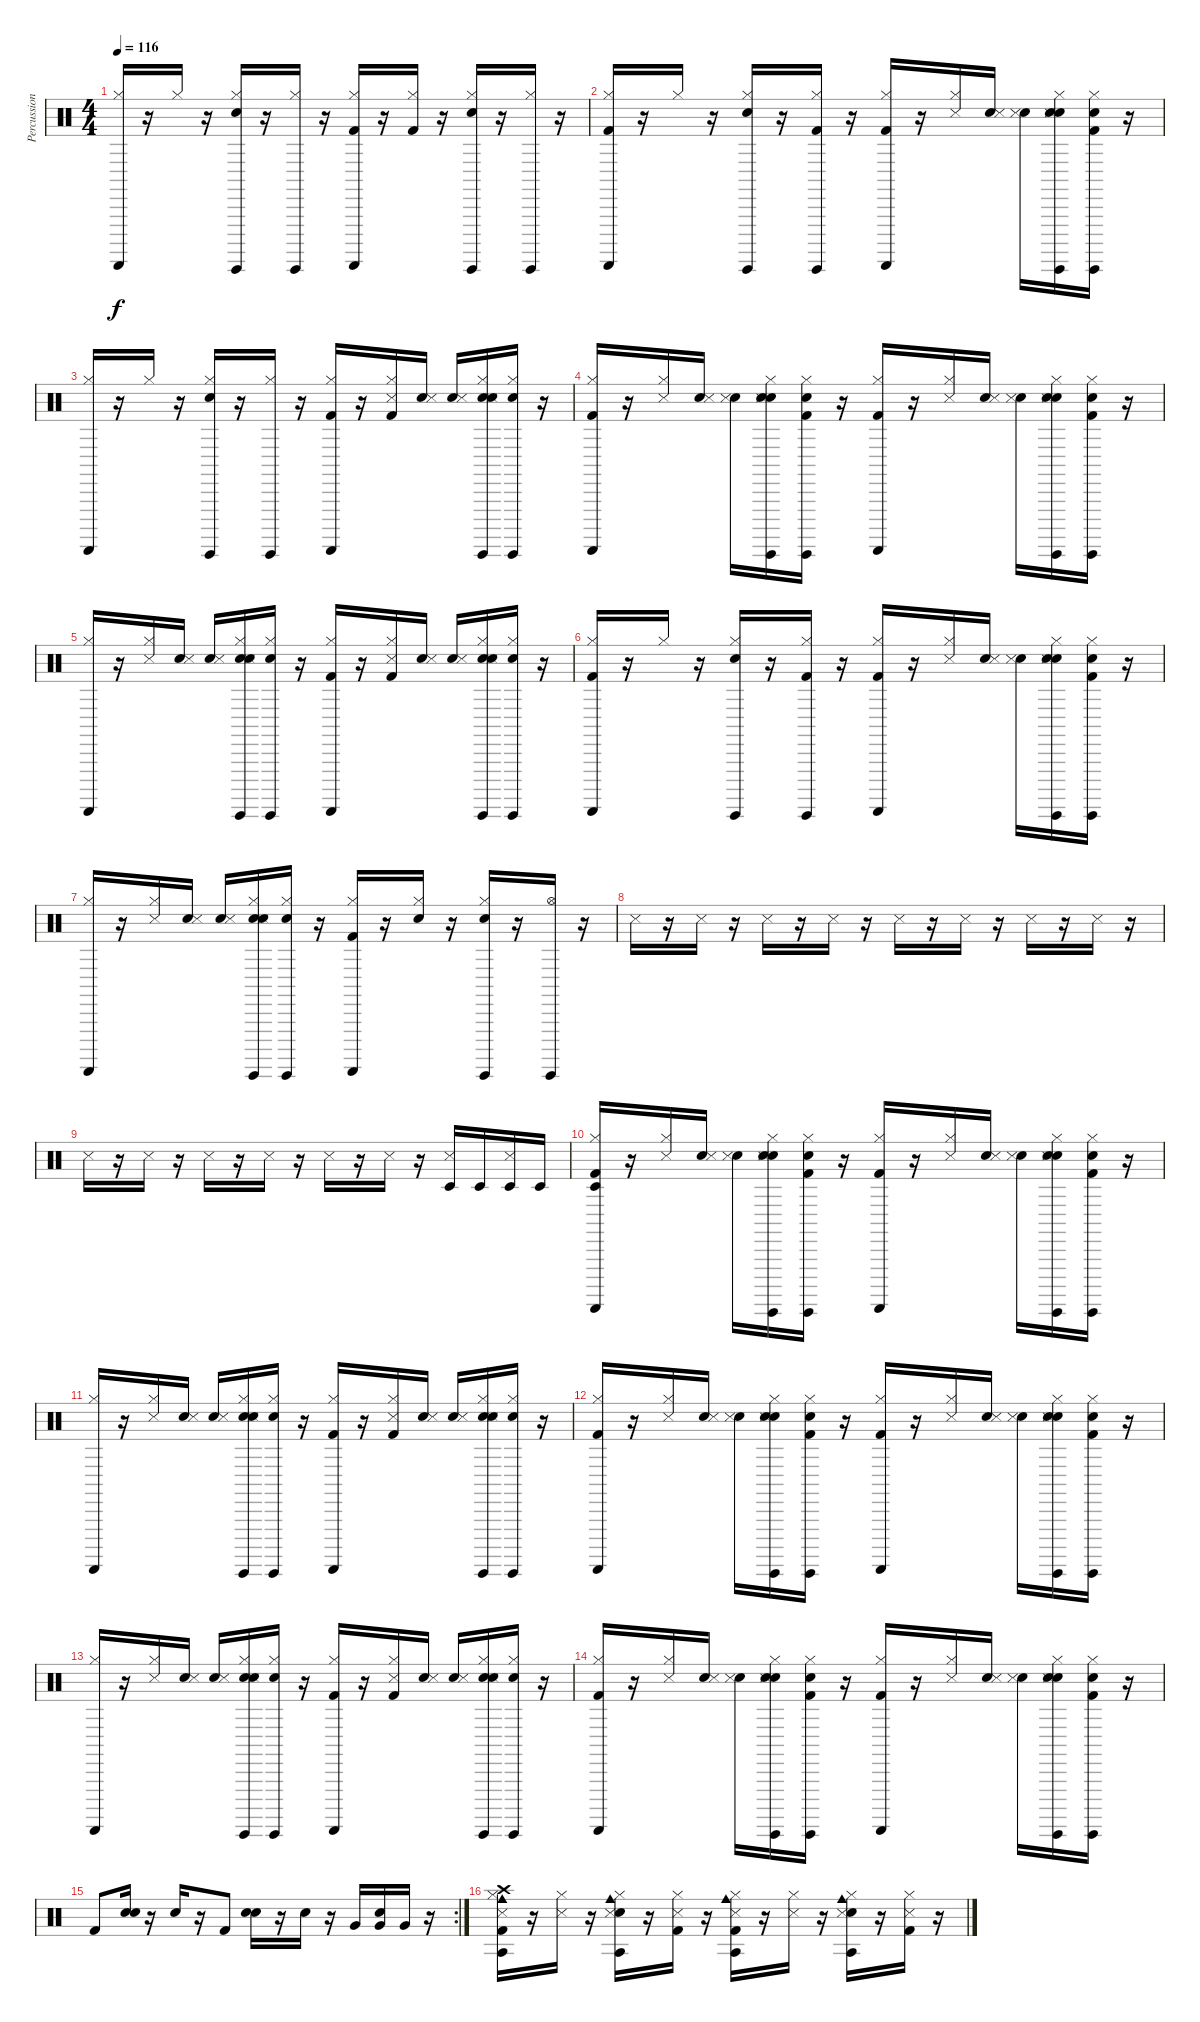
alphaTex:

\track ("Percussion" "Percussion") {instrument percussion}
\staff {score}
\articulation defaults
\ts (4 4)
\tempo 116
\clef neutral
\ks c
("Guiro (scrap-return)" "Hi-Hat (closed)").16{dy f} r.16 "Hi-Hat (closed)".16 r.16 ("Snare (hit) 2" "Guiro (hit)" "Hi-Hat (closed)").16 r.16 ("Guiro (hit)" "Hi-Hat (closed)").16 r.16 ("Guiro (scrap-return)" "Hi-Hat (closed)" "Kick (hit) 2").16 r.16 ("Hi-Hat (closed)" "Kick (hit) 2").16 r.16 ("Guiro (hit)" "Hi-Hat (closed)" "Snare (hit) 2").16 r.16 ("Guiro (hit)" "Hi-Hat (closed)").16 r.16 |
("Guiro (scrap-return)" "Hi-Hat (closed)" "Kick (hit) 2").16 r.16 "Hi-Hat (closed)".16 r.16 ("Guiro (hit)" "Hi-Hat (closed)" "Snare (hit) 2").16 r.16 ("Guiro (hit)" "Hi-Hat (closed)" "Kick (hit) 2").16 r.16 ("Guiro (scrap-return)" "Hi-Hat (closed)" "Kick (hit) 2").16 r.16 ("Hi-Hat (closed)" "Snare (side stick) 3").16 ("Snare (hit)" "Snare (side stick) 3").16 ("Snare (hit)" "Snare (side stick) 3").16 ("Snare (hit)" "Guiro (hit)" "Snare (side stick) 3" "Hi-Hat (closed)" "Snare (hit) 2").16 ("Snare (hit)" "Guiro (hit)" "Hi-Hat (closed)" "Kick (hit) 2").16 r.16 |
("Guiro (scrap-return)" "Hi-Hat (closed)").16 r.16 "Hi-Hat (closed)".16 r.16 ("Guiro (hit)" "Hi-Hat (closed)" "Snare (hit) 2").16 r.16 ("Guiro (hit)" "Hi-Hat (closed)").16 r.16 ("Guiro (scrap-return)" "Hi-Hat (closed)" "Kick (hit) 2").16 r.16 ("Hi-Hat (closed)" "Kick (hit) 2" "Snare (side stick) 3").16 ("Snare (hit)" "Snare (side stick) 3").16 ("Snare (hit)" "Snare (side stick) 3").16 ("Snare (hit)" "Snare (hit) 2" "Guiro (hit)" "Hi-Hat (closed)" "Snare (side stick) 3").16 ("Snare (hit)" "Guiro (hit)" "Hi-Hat (closed)").16 r.16 |
("Guiro (scrap-return)" "Hi-Hat (closed)" "Kick (hit) 2").16 r.16 ("Hi-Hat (closed)" "Snare (side stick) 3").16 ("Snare (hit)" "Snare (side stick) 3").16 ("Snare (hit)" "Snare (side stick) 3").16 ("Snare (hit)" "Guiro (hit)" "Snare (side stick) 3" "Hi-Hat (closed)" "Snare (hit) 2").16 ("Snare (hit)" "Guiro (hit)" "Hi-Hat (closed)" "Kick (hit) 2").16 r.16 ("Guiro (scrap-return)" "Hi-Hat (closed)" "Kick (hit) 2").16 r.16 ("Snare (side stick) 3" "Hi-Hat (closed)").16 ("Snare (hit)" "Snare (side stick) 3").16 ("Snare (hit)" "Snare (side stick) 3").16 ("Snare (hit)" "Snare (side stick) 3" "Guiro (hit)" "Hi-Hat (closed)" "Snare (hit) 2").16 ("Snare (hit)" "Guiro (hit)" "Hi-Hat (closed)" "Kick (hit) 2").16 r.16 |
("Guiro (scrap-return)" "Hi-Hat (closed)").16 r.16 ("Snare (side stick) 3" "Hi-Hat (closed)").16 ("Snare (hit)" "Snare (side stick) 3").16 ("Snare (hit)" "Snare (side stick) 3").16 ("Snare (hit)" "Guiro (hit)" "Hi-Hat (closed)" "Snare (side stick) 3" "Snare (hit) 2").16 ("Snare (hit)" "Guiro (hit)" "Hi-Hat (closed)").16 r.16 ("Kick (hit) 2" "Guiro (scrap-return)" "Hi-Hat (closed)").16 r.16 ("Snare (side stick) 3" "Hi-Hat (closed)" "Kick (hit) 2").16 ("Snare (hit)" "Snare (side stick) 3").16 ("Snare (hit)" "Snare (side stick) 3").16 ("Snare (hit)" "Guiro (hit)" "Hi-Hat (closed)" "Snare (side stick) 3" "Snare (hit) 2").16 ("Snare (hit)" "Guiro (hit)" "Hi-Hat (closed)").16 r.16 |
("Guiro (scrap-return)" "Hi-Hat (closed)" "Kick (hit) 2").16 r.16 "Hi-Hat (closed)".16 r.16 ("Guiro (hit)" "Hi-Hat (closed)" "Snare (hit) 2").16 r.16 ("Guiro (hit)" "Hi-Hat (closed)" "Kick (hit) 2").16 r.16 ("Guiro (scrap-return)" "Hi-Hat (closed)" "Kick (hit) 2").16 r.16 ("Hi-Hat (closed)" "Snare (side stick) 3").16 ("Snare (hit)" "Snare (side stick) 3").16 ("Snare (hit)" "Snare (side stick) 3").16 ("Snare (hit)" "Guiro (hit)" "Hi-Hat (closed)" "Snare (side stick) 3" "Snare (hit) 2").16 ("Snare (hit)" "Kick (hit) 2" "Guiro (hit)" "Hi-Hat (closed)").16 r.16 |
("Guiro (scrap-return)" "Hi-Hat (closed)").16 r.16 ("Hi-Hat (closed)" "Snare (side stick) 3").16 ("Snare (hit)" "Snare (side stick) 3").16 ("Snare (hit)" "Snare (side stick) 3").16 ("Snare (hit)" "Guiro (hit)" "Hi-Hat (closed)" "Snare (hit) 2" "Snare (side stick) 3").16 ("Snare (hit)" "Guiro (hit)" "Hi-Hat (closed)").16 r.16 ("Hi-Hat (closed)" "Kick (hit) 2" "Guiro (scrap-return)").16 r.16 ("Electric Snare (hit)" "Hi-Hat (closed)").16 r.16 ("Hi-Hat (closed)" "Electric Snare (hit)" "Guiro (hit)").16 r.16 ("Hi-Hat (open)" "Guiro (hit)").16 r.16 |
"Snare (side stick) 3".16 r.16 "Snare (side stick) 3".16 r.16 "Snare (side stick) 3".16 r.16 "Snare (side stick) 3".16 r.16 "Snare (side stick) 3".16 r.16 "Snare (side stick) 3".16 r.16 "Snare (side stick) 3".16 r.16 "Snare (side stick) 3".16 r.16 |
"Snare (side stick) 3".16 r.16 "Snare (side stick) 3".16 r.16 "Snare (side stick) 3".16 r.16 "Snare (side stick) 3".16 r.16 "Snare (side stick) 3".16 r.16 "Snare (side stick) 3".16 r.16 ("Timbale low (hit)" "Snare (side stick) 3").16 "Timbale low (hit)".16 ("Timbale low (hit)" "Snare (side stick) 3").16 "Timbale low (hit)".16 |
("Timbale low (hit)" "Guiro (scrap-return)" "Hi-Hat (closed)" "Kick (hit) 2").16 r.16 ("Hi-Hat (closed)" "Snare (side stick) 3").16 ("Snare (hit)" "Snare (side stick) 3").16 ("Snare (hit)" "Snare (side stick) 3").16 ("Snare (hit)" "Guiro (hit)" "Snare (side stick) 3" "Hi-Hat (closed)" "Snare (hit) 2").16 ("Snare (hit)" "Guiro (hit)" "Hi-Hat (closed)" "Kick (hit) 2").16 r.16 ("Guiro (scrap-return)" "Hi-Hat (closed)" "Kick (hit) 2").16 r.16 ("Snare (side stick) 3" "Hi-Hat (closed)").16 ("Snare (hit)" "Snare (side stick) 3").16 ("Snare (hit)" "Snare (side stick) 3").16 ("Snare (hit)" "Snare (side stick) 3" "Guiro (hit)" "Hi-Hat (closed)" "Snare (hit) 2").16 ("Snare (hit)" "Guiro (hit)" "Hi-Hat (closed)" "Kick (hit) 2").16 r.16 |
("Guiro (scrap-return)" "Hi-Hat (closed)").16 r.16 ("Snare (side stick) 3" "Hi-Hat (closed)").16 ("Snare (hit)" "Snare (side stick) 3").16 ("Snare (hit)" "Snare (side stick) 3").16 ("Snare (hit)" "Guiro (hit)" "Hi-Hat (closed)" "Snare (side stick) 3" "Snare (hit) 2").16 ("Snare (hit)" "Guiro (hit)" "Hi-Hat (closed)").16 r.16 ("Kick (hit) 2" "Guiro (scrap-return)" "Hi-Hat (closed)").16 r.16 ("Snare (side stick) 3" "Hi-Hat (closed)" "Kick (hit) 2").16 ("Snare (hit)" "Snare (side stick) 3").16 ("Snare (hit)" "Snare (side stick) 3").16 ("Snare (hit)" "Guiro (hit)" "Hi-Hat (closed)" "Snare (side stick) 3" "Snare (hit) 2").16 ("Snare (hit)" "Guiro (hit)" "Hi-Hat (closed)").16 r.16 |
("Guiro (scrap-return)" "Hi-Hat (closed)" "Kick (hit) 2").16 r.16 ("Hi-Hat (closed)" "Snare (side stick) 3").16 ("Snare (hit)" "Snare (side stick) 3").16 ("Snare (hit)" "Snare (side stick) 3").16 ("Snare (hit)" "Guiro (hit)" "Hi-Hat (closed)" "Snare (side stick) 3" "Snare (hit) 2").16 ("Snare (hit)" "Guiro (hit)" "Hi-Hat (closed)" "Kick (hit) 2").16 r.16 ("Guiro (scrap-return)" "Hi-Hat (closed)" "Kick (hit) 2").16 r.16 ("Snare (side stick) 3" "Hi-Hat (closed)").16 ("Snare (hit)" "Snare (side stick) 3").16 ("Snare (hit)" "Snare (side stick) 3").16 ("Snare (hit)" "Snare (hit) 2" "Hi-Hat (closed)" "Guiro (hit)" "Snare (side stick) 3").16 ("Snare (hit)" "Kick (hit) 2" "Guiro (hit)" "Hi-Hat (closed)").16 r.16 |
("Hi-Hat (closed)" "Guiro (scrap-return)").16 r.16 ("Hi-Hat (closed)" "Snare (side stick) 3").16 ("Snare (hit)" "Snare (side stick) 3").16 ("Snare (hit)" "Snare (side stick) 3").16 ("Snare (hit)" "Hi-Hat (closed)" "Guiro (hit)" "Snare (side stick) 3" "Snare (hit) 2").16 ("Snare (hit)" "Hi-Hat (closed)" "Guiro (hit)").16 r.16 ("Kick (hit) 2" "Guiro (scrap-return)" "Hi-Hat (closed)").16 r.16 ("Hi-Hat (closed)" "Snare (side stick) 3" "Kick (hit) 2").16 ("Snare (hit)" "Snare (side stick) 3").16 ("Snare (hit)" "Snare (side stick) 3").16 ("Snare (hit)" "Hi-Hat (closed)" "Guiro (hit)" "Snare (side stick) 3" "Snare (hit) 2").16 ("Snare (hit)" "Hi-Hat (closed)" "Guiro (hit)").16 r.16 |
("Guiro (scrap-return)" "Hi-Hat (closed)" "Kick (hit) 2").16 r.16 ("Hi-Hat (closed)" "Snare (side stick) 3").16 ("Snare (hit)" "Snare (side stick) 3").16 ("Snare (hit)" "Snare (side stick) 3").16 ("Snare (hit)" "Guiro (hit)" "Hi-Hat (closed)" "Snare (side stick) 3" "Snare (hit) 2").16 ("Snare (hit)" "Guiro (hit)" "Hi-Hat (closed)" "Kick (hit) 2").16 r.16 ("Guiro (scrap-return)" "Hi-Hat (closed)" "Kick (hit) 2").16 r.16 ("Snare (side stick) 3" "Hi-Hat (closed)").16 ("Snare (hit)" "Snare (side stick) 3").16 ("Snare (hit)" "Snare (side stick) 3").16 ("Snare (hit)" "Snare (hit) 2" "Hi-Hat (closed)" "Guiro (hit)" "Snare (side stick) 3").16 ("Snare (hit)" "Kick (hit) 2" "Guiro (hit)" "Hi-Hat (closed)").16 r.16 |
\rc 2 "Kick (hit) 2".8
("Snare (hit)" "Electric Snare (hit)").16 r.16 "Electric Snare (hit)".16 r.16 "Kick (hit) 2".8 ("Snare (hit)" "Electric Snare (hit)").16 r.16 "Electric Snare (hit)".16 r.16 "Very Low Tom (hit)".16 ("Snare (hit)" "Very Low Tom (hit)").16 "Very Low Tom (hit)".16 r.16 |
("Kick (hit) 2" "Hi-Hat (closed)" "Agogo tow (hit)" "Crash high (hit)" "Cowbell medium (hit)" "Snare (side stick) 3").16 r.16 ("Hi-Hat (closed)" "Snare (side stick) 3").16 r.16 ("Snare (hit) 2" "Hi-Hat (closed)" "Agogo tow (hit)" "Cowbell medium (hit)" "Snare (side stick) 3").16 r.16 ("Kick (hit) 2" "Hi-Hat (closed)" "Snare (side stick) 3").16 r.16 ("Kick (hit) 2" "Hi-Hat (closed)" "Agogo tow (hit)" "Cowbell medium (hit)" "Snare (side stick) 3").16 r.16 ("Hi-Hat (closed)" "Snare (side stick) 3").16 r.16 ("Snare (hit) 2" "Hi-Hat (closed)" "Agogo tow (hit)" "Cowbell medium (hit)" "Snare (side stick) 3").16 r.16 ("Kick (hit) 2" "Hi-Hat (closed)" "Snare (side stick) 3").16 r.16
